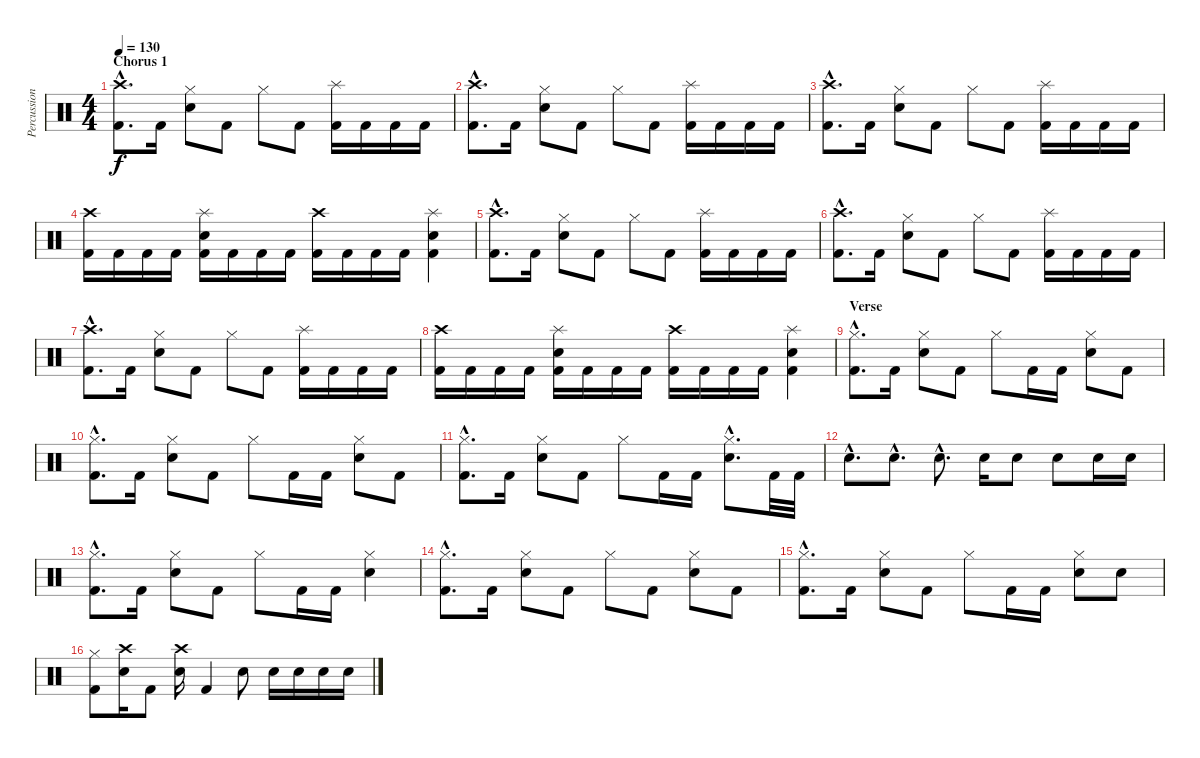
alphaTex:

\track ("Percussions" "Percussion") {instrument percussion}
\staff {score}
\articulation defaults
\ts (4 4)
\section ("" "Chorus 1")
\tempo 130
\clef neutral
\ks c
("Crash high (hit)"{hac} "Kick (hit) 2"{hac}).8{d dy f} "Kick (hit) 2".16 ("Hi-Hat (closed)" "Electric Snare (hit)").8 "Kick (hit) 2".8 "Hi-Hat (closed)".8 "Kick (hit) 2".8 ("Splash (hit)" "Kick (hit) 2").16 "Kick (hit) 2".16 "Kick (hit) 2".16 "Kick (hit) 2".16 |
("Crash high (hit)"{hac} "Kick (hit) 2"{hac}).8{d} "Kick (hit) 2".16 ("Hi-Hat (closed)" "Electric Snare (hit)").8 "Kick (hit) 2".8 "Hi-Hat (closed)".8 "Kick (hit) 2".8 ("Splash (hit)" "Kick (hit) 2").16 "Kick (hit) 2".16 "Kick (hit) 2".16 "Kick (hit) 2".16 |
("Crash high (hit)"{hac} "Kick (hit) 2"{hac}).8{d} "Kick (hit) 2".16 ("Hi-Hat (closed)" "Electric Snare (hit)").8 "Kick (hit) 2".8 "Hi-Hat (closed)".8 "Kick (hit) 2".8 ("Splash (hit)" "Kick (hit) 2").16 "Kick (hit) 2".16 "Kick (hit) 2".16 "Kick (hit) 2".16 |
("Crash high (hit)" "Kick (hit) 2").16 "Kick (hit) 2".16 "Kick (hit) 2".16 "Kick (hit) 2".16 ("Splash (hit)" "Electric Snare (hit)" "Kick (hit) 2").16 "Kick (hit) 2".16 "Kick (hit) 2".16 "Kick (hit) 2".16 ("Crash high (hit)" "Kick (hit) 2").16 "Kick (hit) 2".16 "Kick (hit) 2".16 "Kick (hit) 2".16 ("Splash (hit)" "Electric Snare (hit)" "Kick (hit) 2").4 |
("Crash high (hit)"{hac} "Kick (hit) 2"{hac}).8{d} "Kick (hit) 2".16 ("Hi-Hat (closed)" "Electric Snare (hit)").8 "Kick (hit) 2".8 "Hi-Hat (closed)".8 "Kick (hit) 2".8 ("Splash (hit)" "Kick (hit) 2").16 "Kick (hit) 2".16 "Kick (hit) 2".16 "Kick (hit) 2".16 |
("Crash high (hit)"{hac} "Kick (hit) 2"{hac}).8{d} "Kick (hit) 2".16 ("Hi-Hat (closed)" "Electric Snare (hit)").8 "Kick (hit) 2".8 "Hi-Hat (closed)".8 "Kick (hit) 2".8 ("Splash (hit)" "Kick (hit) 2").16 "Kick (hit) 2".16 "Kick (hit) 2".16 "Kick (hit) 2".16 |
("Crash high (hit)"{hac} "Kick (hit) 2"{hac}).8{d} "Kick (hit) 2".16 ("Hi-Hat (closed)" "Electric Snare (hit)").8 "Kick (hit) 2".8 "Hi-Hat (closed)".8 "Kick (hit) 2".8 ("Splash (hit)" "Kick (hit) 2").16 "Kick (hit) 2".16 "Kick (hit) 2".16 "Kick (hit) 2".16 |
("Crash high (hit)" "Kick (hit) 2").16 "Kick (hit) 2".16 "Kick (hit) 2".16 "Kick (hit) 2".16 ("Splash (hit)" "Electric Snare (hit)" "Kick (hit) 2").16 "Kick (hit) 2".16 "Kick (hit) 2".16 "Kick (hit) 2".16 ("Crash high (hit)" "Kick (hit) 2").16 "Kick (hit) 2".16 "Kick (hit) 2".16 "Kick (hit) 2".16 ("Splash (hit)" "Electric Snare (hit)" "Kick (hit) 2").4 |
\section ("" "Verse")
("Hi-Hat (closed)"{hac} "Kick (hit) 2"{hac}).8{d} "Kick (hit) 2".16 ("Hi-Hat (closed)" "Electric Snare (hit)").8 "Kick (hit) 2".8 "Hi-Hat (closed)".8 "Kick (hit) 2".16 "Kick (hit) 2".16 ("Hi-Hat (closed)" "Electric Snare (hit)").8 "Kick (hit) 2".8 |
("Hi-Hat (closed)"{hac} "Kick (hit) 2"{hac}).8{d} "Kick (hit) 2".16 ("Hi-Hat (closed)" "Electric Snare (hit)").8 "Kick (hit) 2".8 "Hi-Hat (closed)".8 "Kick (hit) 2".16 "Kick (hit) 2".16 ("Hi-Hat (closed)" "Electric Snare (hit)").8 "Kick (hit) 2".8 |
("Hi-Hat (closed)"{hac} "Kick (hit) 2"{hac}).8{d} "Kick (hit) 2".16 ("Hi-Hat (closed)" "Electric Snare (hit)").8 "Kick (hit) 2".8 "Hi-Hat (closed)".8 "Kick (hit) 2".16 "Kick (hit) 2".16 ("Hi-Hat (closed)"{hac} "Electric Snare (hit)"{hac}).8{d} "Kick (hit) 2".32 "Kick (hit) 2".32 |
"Electric Snare (hit)"{hac}.8{d} "Electric Snare (hit)"{hac}.8{d} "Electric Snare (hit)"{hac}.8{d} "Electric Snare (hit)".16 "Electric Snare (hit)".8 "Electric Snare (hit)".8 "Electric Snare (hit)".16 "Electric Snare (hit)".16 |
("Hi-Hat (closed)"{hac} "Kick (hit) 2"{hac}).8{d} "Kick (hit) 2".16 ("Hi-Hat (closed)" "Electric Snare (hit)").8 "Kick (hit) 2".8 "Hi-Hat (closed)".8 "Kick (hit) 2".16 "Kick (hit) 2".16 ("Hi-Hat (closed)" "Electric Snare (hit)").4 |
("Hi-Hat (closed)"{hac} "Kick (hit) 2"{hac}).8{d} "Kick (hit) 2".16 ("Hi-Hat (closed)" "Electric Snare (hit)").8 "Kick (hit) 2".8 "Hi-Hat (closed)".8 "Kick (hit) 2".8 ("Hi-Hat (closed)" "Electric Snare (hit)").8 "Kick (hit) 2".8 |
("Hi-Hat (closed)"{hac} "Kick (hit) 2"{hac}).8{d} "Kick (hit) 2".16 ("Hi-Hat (closed)" "Electric Snare (hit)").8 "Kick (hit) 2".8 "Hi-Hat (closed)".8 "Kick (hit) 2".16 "Kick (hit) 2".16 ("Hi-Hat (closed)" "Electric Snare (hit)").8 "Electric Snare (hit)".8 |
("Hi-Hat (closed)" "Kick (hit) 2").8 ("Crash high (hit)" "Electric Snare (hit)").16 "Kick (hit) 2".8 ("Crash high (hit)" "Electric Snare (hit)").16 "Kick (hit) 2".4 "Electric Snare (hit)".8 "Electric Snare (hit)".16 "Electric Snare (hit)".16 "Electric Snare (hit)".16 "Electric Snare (hit)".16
